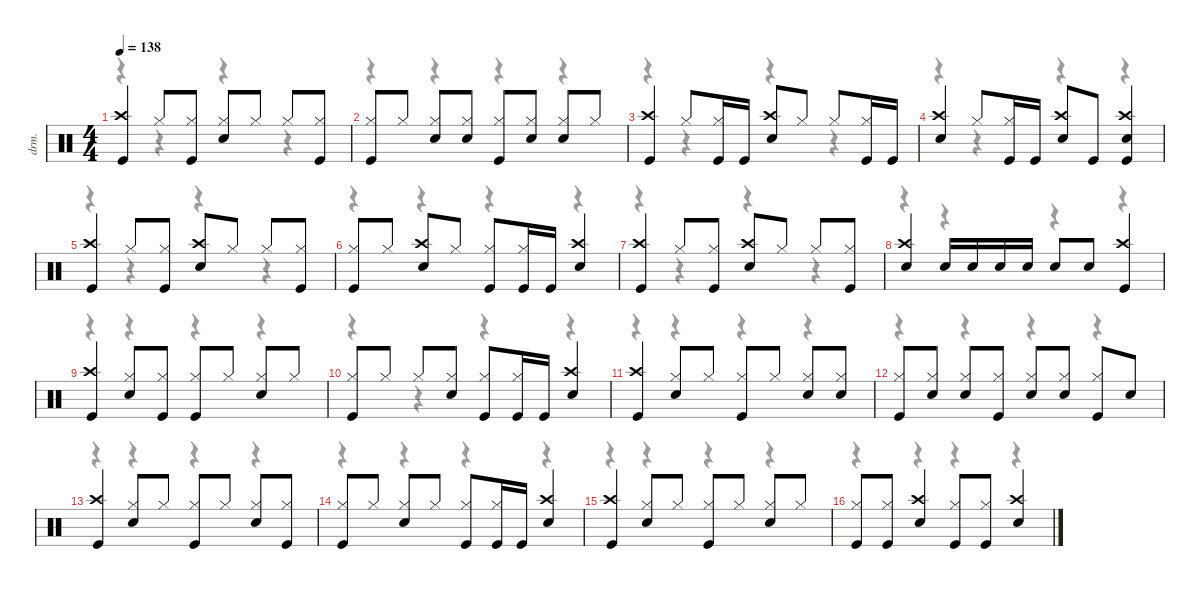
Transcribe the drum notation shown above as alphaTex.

\defaultSystemsLayout 4
\hideDynamics
\bracketExtendMode nobrackets
\track ("Drumkit" "drm.") {instrument percussion}
\staff {score}
\articulation defaults
\voice
\ts (4 4)
\tempo 138
\clef neutral
\ks c
("Kick (hit)" "Crash high (hit)").4{dy f} "Hi-Hat (closed)".8 ("Kick (hit)" "Hi-Hat (closed)").8 ("Hi-Hat (closed)" "Snare (hit) 2").8 "Hi-Hat (closed)".8 "Hi-Hat (closed)".8 ("Kick (hit)" "Hi-Hat (closed)").8 |
("Hi-Hat (closed)" "Kick (hit)").8 "Hi-Hat (closed)".8 ("Snare (hit) 2" "Hi-Hat (closed)").8 ("Snare (hit) 2" "Hi-Hat (closed)").8 ("Hi-Hat (closed)" "Kick (hit)").8 ("Snare (hit) 2" "Hi-Hat (closed)").8 ("Hi-Hat (closed)" "Snare (hit) 2").8 "Hi-Hat (closed)".8 |
("Kick (hit)" "Crash high (hit)").4 "Hi-Hat (closed)".8 ("Hi-Hat (closed)" "Kick (hit)").16 "Kick (hit)".16 ("Crash high (hit)" "Snare (hit) 2").8 "Hi-Hat (closed)".8 "Hi-Hat (closed)".8 ("Hi-Hat (closed)" "Kick (hit)").16 "Kick (hit)".16 |
("Snare (hit) 2" "Crash high (hit)").4 "Hi-Hat (closed)".8 ("Kick (hit)" "Hi-Hat (closed)").16 "Kick (hit)".16 ("Crash high (hit)" "Snare (hit) 2").8 "Kick (hit)".8 ("Crash high (hit)" "Snare (hit) 2" "Kick (hit)").4 |
("Kick (hit)" "Crash high (hit)").4 "Hi-Hat (closed)".8 ("Hi-Hat (closed)" "Kick (hit)").8 ("Crash high (hit)" "Snare (hit) 2").8 "Hi-Hat (closed)".8 "Hi-Hat (closed)".8 ("Hi-Hat (closed)" "Kick (hit)").8 |
("Kick (hit)" "Hi-Hat (closed)").8 "Hi-Hat (closed)".8 ("Crash high (hit)" "Snare (hit) 2").8 "Hi-Hat (closed)".8 ("Kick (hit)" "Hi-Hat (closed)").8 ("Kick (hit)" "Hi-Hat (closed)").16 "Kick (hit)".16 ("Snare (hit) 2" "Crash high (hit)").4 |
("Kick (hit)" "Crash high (hit)").4 "Hi-Hat (closed)".8 ("Hi-Hat (closed)" "Kick (hit)").8 ("Crash high (hit)" "Snare (hit) 2").8 "Hi-Hat (closed)".8 "Hi-Hat (closed)".8 ("Hi-Hat (closed)" "Kick (hit)").8 |
("Snare (hit) 2" "Crash high (hit)").4 "Snare (hit) 2".16 "Snare (hit) 2".16 "Snare (hit) 2".16 "Snare (hit) 2".16 "Snare (hit) 2".8 "Snare (hit) 2".8 ("Crash high (hit)" "Kick (hit)").4 |
("Kick (hit)" "Crash high (hit)").4 ("Snare (hit) 2" "Hi-Hat (closed)").8 ("Hi-Hat (closed)" "Kick (hit)").8 ("Hi-Hat (closed)" "Kick (hit)").8 "Hi-Hat (closed)".8 ("Snare (hit) 2" "Hi-Hat (closed)").8 "Hi-Hat (closed)".8 |
("Kick (hit)" "Hi-Hat (closed)").8 "Hi-Hat (closed)".8 "Hi-Hat (closed)".8 ("Snare (hit) 2" "Hi-Hat (closed)").8 ("Kick (hit)" "Hi-Hat (closed)").8 ("Kick (hit)" "Hi-Hat (closed)").16 "Kick (hit)".16 ("Crash high (hit)" "Snare (hit) 2").4 |
("Kick (hit)" "Crash high (hit)").4 ("Hi-Hat (closed)" "Snare (hit) 2").8 "Hi-Hat (closed)".8 ("Hi-Hat (closed)" "Kick (hit)").8 "Hi-Hat (closed)".8 ("Snare (hit) 2" "Hi-Hat (closed)").8 ("Snare (hit) 2" "Hi-Hat (closed)").8 |
("Kick (hit)" "Hi-Hat (closed)").8 ("Snare (hit) 2" "Hi-Hat (closed)").8 ("Snare (hit) 2" "Hi-Hat (closed)").8 ("Kick (hit)" "Hi-Hat (closed)").8 ("Snare (hit) 2" "Hi-Hat (closed)").8 ("Snare (hit) 2" "Hi-Hat (closed)").8 ("Kick (hit)" "Hi-Hat (closed)").8 "Snare (hit) 2".8 |
("Kick (hit)" "Crash high (hit)").4 ("Hi-Hat (closed)" "Snare (hit) 2").8 "Hi-Hat (closed)".8 ("Hi-Hat (closed)" "Kick (hit)").8 "Hi-Hat (closed)".8 ("Snare (hit) 2" "Hi-Hat (closed)").8 ("Hi-Hat (closed)" "Kick (hit)").8 |
("Hi-Hat (closed)" "Kick (hit)").8 "Hi-Hat (closed)".8 ("Snare (hit) 2" "Hi-Hat (closed)").8 "Hi-Hat (closed)".8 ("Hi-Hat (closed)" "Kick (hit)").8 ("Hi-Hat (closed)" "Kick (hit)").16 "Kick (hit)".16 ("Crash high (hit)" "Snare (hit) 2").4 |
("Kick (hit)" "Crash high (hit)").4 ("Hi-Hat (closed)" "Snare (hit) 2").8 "Hi-Hat (closed)".8 ("Hi-Hat (closed)" "Kick (hit)").8 "Hi-Hat (closed)".8 ("Snare (hit) 2" "Hi-Hat (closed)").8 "Hi-Hat (closed)".8 |
("Kick (hit)" "Hi-Hat (closed)").8 ("Kick (hit)" "Hi-Hat (closed)").8 ("Crash high (hit)" "Snare (hit) 2").4 ("Hi-Hat (closed)" "Kick (hit)").8 ("Hi-Hat (closed)" "Kick (hit)").8 ("Crash high (hit)" "Snare (hit) 2").4
\voice
\clef neutral
\ottava regular
\simile none
\ks c
r.4{dy mf} r.4 r.4 r.4 |
r.4 r.4 r.4 r.4 |
r.4 r.4 r.4 r.4 |
r.4 r.4 r.4 r.4 |
r.4 r.4 r.4 r.4 |
r.4 r.4 r.4 r.4 |
r.4 r.4 r.4 r.4 |
r.4 r.4 r.4 r.4 |
r.4 r.4 r.4 r.4 |
r.4 r.4 r.4 r.4 |
r.4 r.4 r.4 r.4 |
r.4 r.4 r.4 r.4 |
r.4 r.4 r.4 r.4 |
r.4 r.4 r.4 r.4 |
r.4 r.4 r.4 r.4 |
r.4 r.4 r.4 r.4
